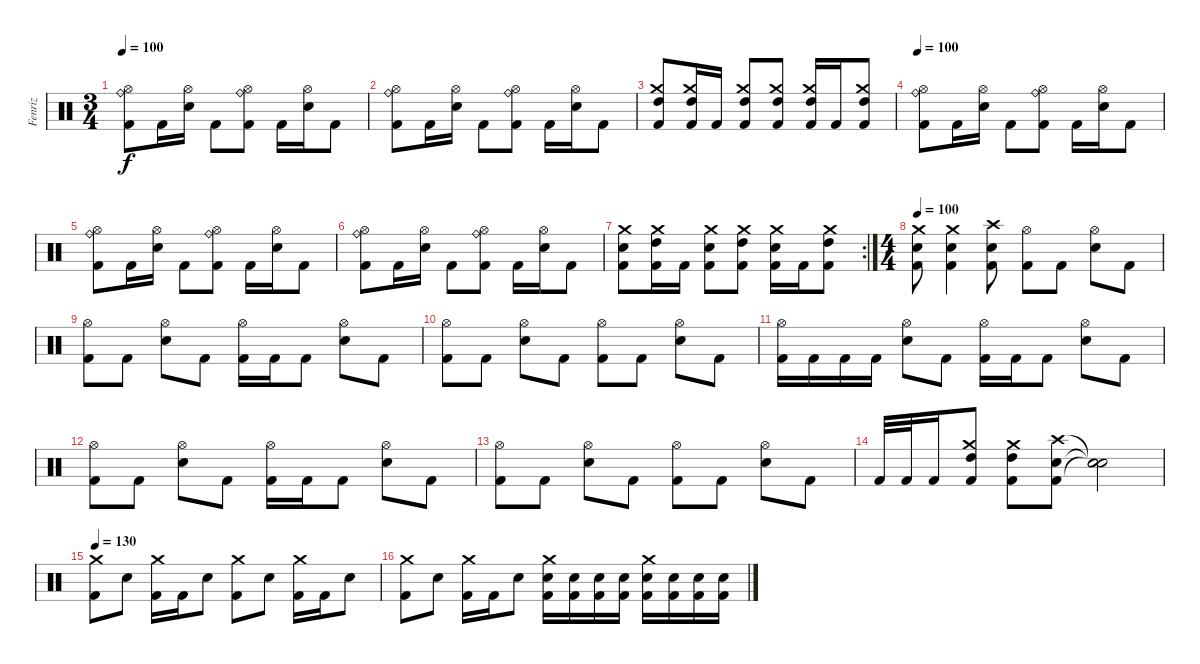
\track ("Fenriz" "Fenriz") {instrument percussion}
\staff {score}
\articulation defaults
\ts (3 4)
\tempo 100
\clef neutral
\ks c
("Hi-Hat (open)" "Ride (bell)" "Kick (hit) 2").8{dy f} "Kick (hit) 2".16 ("Hi-Hat (open)" "Electric Snare (hit)").16 "Kick (hit) 2".8 ("Hi-Hat (open)" "Ride (bell)" "Kick (hit) 2").8 "Kick (hit) 2".16 ("Hi-Hat (open)" "Electric Snare (hit)").16 "Kick (hit) 2".8 |
("Hi-Hat (open)" "Ride (bell)" "Kick (hit) 2").8 "Kick (hit) 2".16 ("Hi-Hat (open)" "Electric Snare (hit)").16 "Kick (hit) 2".8 ("Hi-Hat (open)" "Ride (bell)" "Kick (hit) 2").8 "Kick (hit) 2".16 ("Hi-Hat (open)" "Electric Snare (hit)").16 "Kick (hit) 2".8 |
("Crash medium (hit)" "High Tom (hit)" "Kick (hit) 2").8 ("Crash medium (hit)" "High Tom (hit)" "Kick (hit) 2").16 "Kick (hit) 2".16 ("Crash medium (hit)" "High Tom (hit)" "Kick (hit) 2").8 ("Crash medium (hit)" "High Tom (hit)" "Kick (hit) 2").8 ("Crash medium (hit)" "High Tom (hit)" "Kick (hit) 2").16 "Kick (hit) 2".16 ("Crash medium (hit)" "High Tom (hit)" "Kick (hit) 2").8 |
\tempo 100
("Hi-Hat (open)" "Ride (bell)" "Kick (hit) 2").8 "Kick (hit) 2".16 ("Hi-Hat (open)" "Electric Snare (hit)").16 "Kick (hit) 2".8 ("Hi-Hat (open)" "Ride (bell)" "Kick (hit) 2").8 "Kick (hit) 2".16 ("Hi-Hat (open)" "Electric Snare (hit)").16 "Kick (hit) 2".8 |
("Hi-Hat (open)" "Ride (bell)" "Kick (hit) 2").8 "Kick (hit) 2".16 ("Hi-Hat (open)" "Electric Snare (hit)").16 "Kick (hit) 2".8 ("Hi-Hat (open)" "Ride (bell)" "Kick (hit) 2").8 "Kick (hit) 2".16 ("Hi-Hat (open)" "Electric Snare (hit)").16 "Kick (hit) 2".8 |
("Hi-Hat (open)" "Ride (bell)" "Kick (hit) 2").8 "Kick (hit) 2".16 ("Hi-Hat (open)" "Electric Snare (hit)").16 "Kick (hit) 2".8 ("Hi-Hat (open)" "Ride (bell)" "Kick (hit) 2").8 "Kick (hit) 2".16 ("Hi-Hat (open)" "Electric Snare (hit)").16 "Kick (hit) 2".8 |
\rc 2
("Crash medium (hit)" "Electric Snare (hit)" "Kick (hit) 2").8 ("Crash medium (hit)" "High Tom (hit)" "Kick (hit) 2").16 "Kick (hit) 2".16 ("Crash medium (hit)" "Electric Snare (hit)" "Kick (hit) 2").8 ("Crash medium (hit)" "High Tom (hit)" "Kick (hit) 2").8 ("Crash medium (hit)" "Electric Snare (hit)" "Kick (hit) 2").16 "Kick (hit) 2".16 ("Crash medium (hit)" "High Tom (hit)" "Kick (hit) 2").8 |
\ts (4 4)
\tempo 100
("Crash medium (hit)" "Electric Snare (hit)" "Kick (hit) 2").8 ("Crash medium (hit)" "Electric Snare (hit)" "Kick (hit) 2").4 ("Crash high (hit)" "Electric Snare (hit)" "Kick (hit) 2").8 ("Hi-Hat (open)" "Kick (hit) 2").8 "Kick (hit) 2".8 ("Hi-Hat (open)" "Electric Snare (hit)").8 "Kick (hit) 2".8 |
("Hi-Hat (open)" "Kick (hit) 2").8 "Kick (hit) 2".8 ("Hi-Hat (open)" "Electric Snare (hit)").8 "Kick (hit) 2".8 ("Hi-Hat (open)" "Kick (hit) 2").16 "Kick (hit) 2".16 "Kick (hit) 2".8 ("Hi-Hat (open)" "Electric Snare (hit)").8 "Kick (hit) 2".8 |
("Hi-Hat (open)" "Kick (hit) 2").8 "Kick (hit) 2".8 ("Hi-Hat (open)" "Electric Snare (hit)").8 "Kick (hit) 2".8 ("Hi-Hat (open)" "Kick (hit) 2").8 "Kick (hit) 2".8 ("Hi-Hat (open)" "Electric Snare (hit)").8 "Kick (hit) 2".8 |
("Hi-Hat (open)" "Kick (hit) 2").16 "Kick (hit) 2".16 "Kick (hit) 2".16 "Kick (hit) 2".16 ("Hi-Hat (open)" "Electric Snare (hit)").8 "Kick (hit) 2".8 ("Hi-Hat (open)" "Kick (hit) 2").16 "Kick (hit) 2".16 "Kick (hit) 2".8 ("Hi-Hat (open)" "Electric Snare (hit)").8 "Kick (hit) 2".8 |
("Hi-Hat (open)" "Kick (hit) 2").8 "Kick (hit) 2".8 ("Hi-Hat (open)" "Electric Snare (hit)").8 "Kick (hit) 2".8 ("Hi-Hat (open)" "Kick (hit) 2").16 "Kick (hit) 2".16 "Kick (hit) 2".8 ("Hi-Hat (open)" "Electric Snare (hit)").8 "Kick (hit) 2".8 |
("Hi-Hat (open)" "Kick (hit) 2").8 "Kick (hit) 2".8 ("Hi-Hat (open)" "Electric Snare (hit)").8 "Kick (hit) 2".8 ("Hi-Hat (open)" "Kick (hit) 2").8 "Kick (hit) 2".8 ("Hi-Hat (open)" "Electric Snare (hit)").8 "Kick (hit) 2".8 |
"Kick (hit) 2".32 "Kick (hit) 2".32 "Kick (hit) 2".16 ("Crash medium (hit)" "High Tom (hit)" "Kick (hit) 2").8 ("Crash medium (hit)" "High Tom (hit)" "Kick (hit) 2").8 ("Crash high (hit)" "Electric Snare (hit)" "Kick (hit) 2").8 ("Snare (hit)"{t} "Snare (hit)"{t} "Snare (hit)"{t}).2 |
\tempo 130
("Crash medium (hit)" "Kick (hit) 2").8 "Electric Snare (hit)".8 ("Crash medium (hit)" "Kick (hit) 2").16 "Kick (hit) 2".16 "Electric Snare (hit)".8 ("Crash medium (hit)" "Kick (hit) 2").8 "Electric Snare (hit)".8 ("Crash medium (hit)" "Kick (hit) 2").16 "Kick (hit) 2".16 "Electric Snare (hit)".8 |
("Crash medium (hit)" "Kick (hit) 2").8 "Electric Snare (hit)".8 ("Crash medium (hit)" "Kick (hit) 2").16 "Kick (hit) 2".16 "Electric Snare (hit)".8 ("Crash medium (hit)" "Electric Snare (hit)" "Kick (hit) 2").16 ("Electric Snare (hit)" "Kick (hit) 2").16 ("Electric Snare (hit)" "Kick (hit) 2").16 ("Electric Snare (hit)" "Kick (hit) 2").16 ("Crash medium (hit)" "Electric Snare (hit)" "Kick (hit) 2").16 ("Electric Snare (hit)" "Kick (hit) 2").16 ("Electric Snare (hit)" "Kick (hit) 2").16 ("Electric Snare (hit)" "Kick (hit) 2").16
